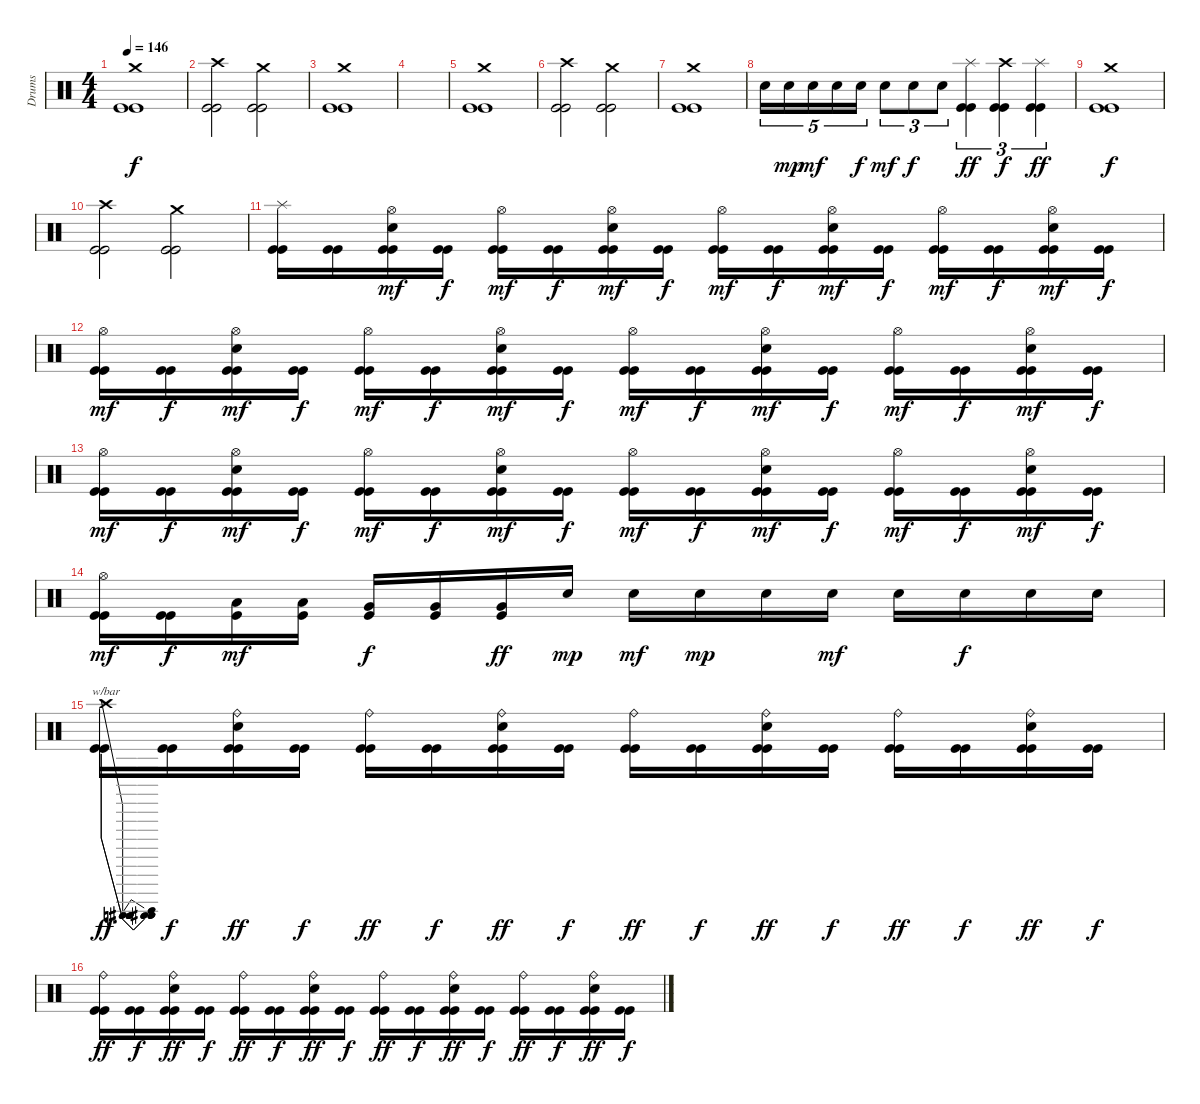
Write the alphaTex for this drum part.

\track ("Drums" "Drums") {instrument percussion}
\staff {score}
\articulation defaults
\ts (4 4)
\tempo 146
\clef neutral
\ks c
("Crash medium (hit)" "Kick (hit)" "Kick (hit)").1{dy f} |
("Crash high (hit)" "Kick (hit)" "Kick (hit)").2 ("Crash medium (hit)" "Kick (hit)" "Kick (hit)").2 |
("Crash medium (hit)" "Kick (hit)" "Kick (hit)").1 |
|
("Crash medium (hit)" "Kick (hit)" "Kick (hit)").1 |
("Crash high (hit)" "Kick (hit)" "Kick (hit)").2 ("Crash medium (hit)" "Kick (hit)" "Kick (hit)").2 |
("Crash medium (hit)" "Kick (hit)" "Kick (hit)").1 |
"Electric Snare (hit)".16{tu (5 4)} "Electric Snare (hit)".16{tu (5 4) dy mp} "Electric Snare (hit)".16{tu (5 4) dy mf} "Electric Snare (hit)".16{tu (5 4)} "Electric Snare (hit)".16{tu (5 4) dy f} "Electric Snare (hit)".8{tu (3 2) dy mf} "Electric Snare (hit)".8{tu (3 2) dy f} "Electric Snare (hit)".8{tu (3 2)} ("Splash (hit)" "Kick (hit)" "Kick (hit)").4{tu (3 2) dy ff} ("Crash high (hit)" "Kick (hit)" "Kick (hit)").4{tu (3 2) dy f} ("Splash (hit)" "Kick (hit)" "Kick (hit)").4{tu (3 2) dy ff} |
("Crash medium (hit)" "Kick (hit)" "Kick (hit)").1{dy f} |
("Crash high (hit)" "Kick (hit)" "Kick (hit)").2 ("Crash medium (hit)" "Kick (hit)" "Kick (hit)").2 |
("Splash (hit)" "Kick (hit)" "Kick (hit)").16 ("Kick (hit)" "Kick (hit)").16 ("Hi-Hat (open)" "Electric Snare (hit)" "Kick (hit)" "Kick (hit)").16{dy mf} ("Kick (hit)" "Kick (hit)").16{dy f} ("Hi-Hat (open)" "Kick (hit)" "Kick (hit)").16{dy mf} ("Kick (hit)" "Kick (hit)").16{dy f} ("Hi-Hat (open)" "Electric Snare (hit)" "Kick (hit)" "Kick (hit)").16{dy mf} ("Kick (hit)" "Kick (hit)").16{dy f} ("Hi-Hat (open)" "Kick (hit)" "Kick (hit)").16{dy mf} ("Kick (hit)" "Kick (hit)").16{dy f} ("Hi-Hat (open)" "Electric Snare (hit)" "Kick (hit)" "Kick (hit)").16{dy mf} ("Kick (hit)" "Kick (hit)").16{dy f} ("Hi-Hat (open)" "Kick (hit)" "Kick (hit)").16{dy mf} ("Kick (hit)" "Kick (hit)").16{dy f} ("Hi-Hat (open)" "Electric Snare (hit)" "Kick (hit)" "Kick (hit)").16{dy mf} ("Kick (hit)" "Kick (hit)").16{dy f} |
("Hi-Hat (open)" "Kick (hit)" "Kick (hit)").16{dy mf} ("Kick (hit)" "Kick (hit)").16{dy f} ("Hi-Hat (open)" "Electric Snare (hit)" "Kick (hit)" "Kick (hit)").16{dy mf} ("Kick (hit)" "Kick (hit)").16{dy f} ("Hi-Hat (open)" "Kick (hit)" "Kick (hit)").16{dy mf} ("Kick (hit)" "Kick (hit)").16{dy f} ("Hi-Hat (open)" "Electric Snare (hit)" "Kick (hit)" "Kick (hit)").16{dy mf} ("Kick (hit)" "Kick (hit)").16{dy f} ("Hi-Hat (open)" "Kick (hit)" "Kick (hit)").16{dy mf} ("Kick (hit)" "Kick (hit)").16{dy f} ("Hi-Hat (open)" "Electric Snare (hit)" "Kick (hit)" "Kick (hit)").16{dy mf} ("Kick (hit)" "Kick (hit)").16{dy f} ("Hi-Hat (open)" "Kick (hit)" "Kick (hit)").16{dy mf} ("Kick (hit)" "Kick (hit)").16{dy f} ("Hi-Hat (open)" "Electric Snare (hit)" "Kick (hit)" "Kick (hit)").16{dy mf} ("Kick (hit)" "Kick (hit)").16{dy f} |
("Hi-Hat (open)" "Kick (hit)" "Kick (hit)").16{dy mf} ("Kick (hit)" "Kick (hit)").16{dy f} ("Hi-Hat (open)" "Electric Snare (hit)" "Kick (hit)" "Kick (hit)").16{dy mf} ("Kick (hit)" "Kick (hit)").16{dy f} ("Hi-Hat (open)" "Kick (hit)" "Kick (hit)").16{dy mf} ("Kick (hit)" "Kick (hit)").16{dy f} ("Hi-Hat (open)" "Electric Snare (hit)" "Kick (hit)" "Kick (hit)").16{dy mf} ("Kick (hit)" "Kick (hit)").16{dy f} ("Hi-Hat (open)" "Kick (hit)" "Kick (hit)").16{dy mf} ("Kick (hit)" "Kick (hit)").16{dy f} ("Hi-Hat (open)" "Electric Snare (hit)" "Kick (hit)" "Kick (hit)").16{dy mf} ("Kick (hit)" "Kick (hit)").16{dy f} ("Hi-Hat (open)" "Kick (hit)" "Kick (hit)").16{dy mf} ("Kick (hit)" "Kick (hit)").16{dy f} ("Hi-Hat (open)" "Electric Snare (hit)" "Kick (hit)" "Kick (hit)").16{dy mf} ("Kick (hit)" "Kick (hit)").16{dy f} |
("Hi-Hat (open)" "Kick (hit)" "Kick (hit)").16{dy mf} ("Kick (hit)" "Kick (hit)").16{dy f} ("Low Floor Tom (hit)" "Kick (hit)").16{dy mf} ("Low Floor Tom (hit)" "Kick (hit)").16 ("Very Low Tom (hit)" "Kick (hit)").16{dy f} ("Very Low Tom (hit)" "Kick (hit)").16 ("Very Low Tom (hit)" "Kick (hit)").16{dy ff} "Electric Snare (hit)".16{dy mp} "Electric Snare (hit)".16{dy mf} "Electric Snare (hit)".16{dy mp} "Electric Snare (hit)".16 "Electric Snare (hit)".16{dy mf} "Electric Snare (hit)".16 "Electric Snare (hit)".16{dy f} "Electric Snare (hit)".16 "Electric Snare (hit)".16 |
("Crash high (hit)" "Kick (hit)" "Kick (hit)").16{tbe (dip default 0 0 30 -2 60 0) dy ff} ("Kick (hit)" "Kick (hit)").16{dy f} ("Ride (bell)" "Electric Snare (hit)" "Kick (hit)" "Kick (hit)").16{dy ff} ("Kick (hit)" "Kick (hit)").16{dy f} ("Ride (bell)" "Kick (hit)" "Kick (hit)").16{dy ff} ("Kick (hit)" "Kick (hit)").16{dy f} ("Ride (bell)" "Electric Snare (hit)" "Kick (hit)" "Kick (hit)").16{dy ff} ("Kick (hit)" "Kick (hit)").16{dy f} ("Ride (bell)" "Kick (hit)" "Kick (hit)").16{dy ff} ("Kick (hit)" "Kick (hit)").16{dy f} ("Ride (bell)" "Electric Snare (hit)" "Kick (hit)" "Kick (hit)").16{dy ff} ("Kick (hit)" "Kick (hit)").16{dy f} ("Ride (bell)" "Kick (hit)" "Kick (hit)").16{dy ff} ("Kick (hit)" "Kick (hit)").16{dy f} ("Ride (bell)" "Electric Snare (hit)" "Kick (hit)" "Kick (hit)").16{dy ff} ("Kick (hit)" "Kick (hit)").16{dy f} |
("Ride (bell)" "Kick (hit)" "Kick (hit)").16{dy ff} ("Kick (hit)" "Kick (hit)").16{dy f} ("Ride (bell)" "Electric Snare (hit)" "Kick (hit)" "Kick (hit)").16{dy ff} ("Kick (hit)" "Kick (hit)").16{dy f} ("Ride (bell)" "Kick (hit)" "Kick (hit)").16{dy ff} ("Kick (hit)" "Kick (hit)").16{dy f} ("Ride (bell)" "Electric Snare (hit)" "Kick (hit)" "Kick (hit)").16{dy ff} ("Kick (hit)" "Kick (hit)").16{dy f} ("Ride (bell)" "Kick (hit)" "Kick (hit)").16{dy ff} ("Kick (hit)" "Kick (hit)").16{dy f} ("Ride (bell)" "Electric Snare (hit)" "Kick (hit)" "Kick (hit)").16{dy ff} ("Kick (hit)" "Kick (hit)").16{dy f} ("Ride (bell)" "Kick (hit)" "Kick (hit)").16{dy ff} ("Kick (hit)" "Kick (hit)").16{dy f} ("Ride (bell)" "Electric Snare (hit)" "Kick (hit)" "Kick (hit)").16{dy ff} ("Kick (hit)" "Kick (hit)").16{dy f}
